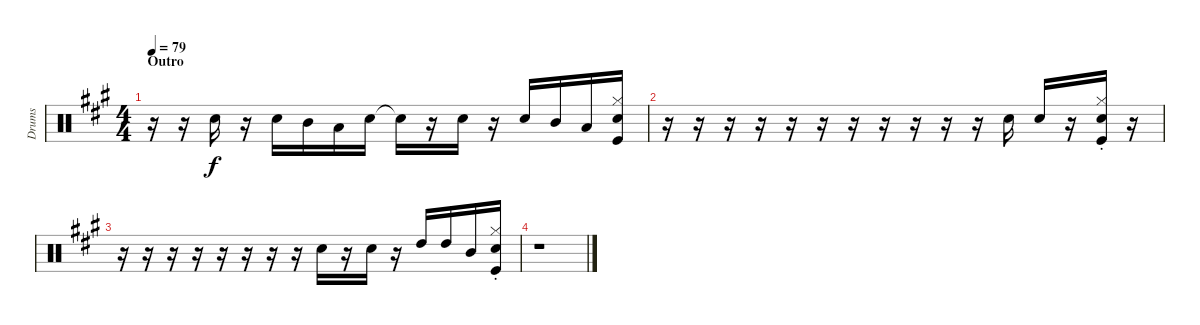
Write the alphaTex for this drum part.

\track ("Drums" "Drums") {instrument percussion}
\staff {score}
\articulation defaults
\ts (4 4)
\section ("" "Outro")
\tempo 79
\clef neutral
\ks a
r.16{dy f} r.16 "Snare (hit) 2".16 r.16 "Snare (hit) 2".16 "Mid Tom (hit)".16 "Low Tom (hit)".16 "Snare (hit) 2".16 "Snare (hit) 2"{t}.16 r.16 "Snare (hit) 2".16 r.16 "Snare (hit) 2".16 "Mid Tom (hit)".16 "Low Tom (hit)".16 ("Hi-Hat (closed)" "Snare (hit) 2" "Kick (hit)").16 |
r.16 r.16 r.16 r.16 r.16 r.16 r.16 r.16 r.16 r.16 r.16 "Snare (hit) 2".16 "Snare (hit) 2".16 r.16 ("Hi-Hat (closed)" "Snare (hit) 2" "Kick (hit)"{st}).16 r.16 |
r.16 r.16 r.16 r.16 r.16 r.16 r.16 r.16 "Snare (hit) 2".16 r.16 "Snare (hit) 2".16 r.16 "High Tom (hit)".16 "High Tom (hit)".16 "Mid Tom (hit)".16 ("Hi-Hat (closed)" "Snare (hit) 2" "Kick (hit)"{st}).16 |
r.1
